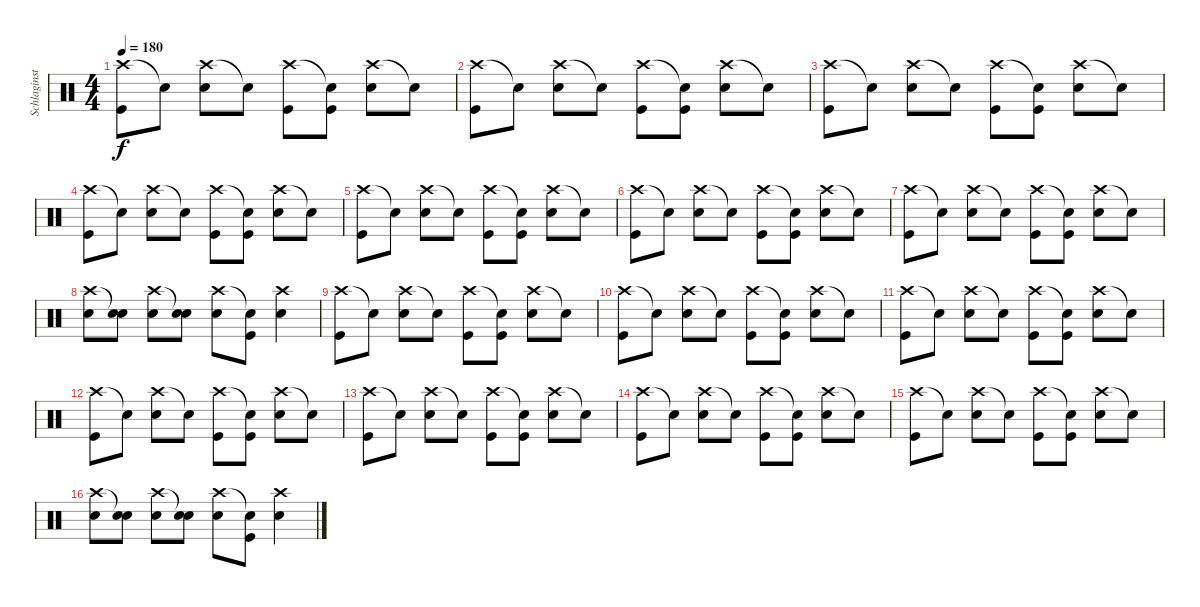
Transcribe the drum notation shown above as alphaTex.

\track ("Schlaginstrumente - Auswahl" "Schlaginst") {instrument percussion}
\staff {score}
\articulation defaults
\ts (4 4)
\tempo 180
\clef neutral
\ks c
("Crash high (hit)" "Kick (hit)").8{dy f} "Snare (hit)"{t}.8 ("Crash high (hit)" "Electric Snare (hit)").8 "Snare (hit)"{t}.8 ("Crash high (hit)" "Kick (hit)").8 ("Snare (hit)"{t} "Kick (hit)").8 ("Crash high (hit)" "Electric Snare (hit)").8 "Snare (hit)"{t}.8 |
("Crash high (hit)" "Kick (hit)").8 "Snare (hit)"{t}.8 ("Crash high (hit)" "Electric Snare (hit)").8 "Snare (hit)"{t}.8 ("Crash high (hit)" "Kick (hit)").8 ("Snare (hit)"{t} "Kick (hit)").8 ("Crash high (hit)" "Electric Snare (hit)").8 "Snare (hit)"{t}.8 |
("Crash high (hit)" "Kick (hit)").8 "Snare (hit)"{t}.8 ("Crash high (hit)" "Electric Snare (hit)").8 "Snare (hit)"{t}.8 ("Crash high (hit)" "Kick (hit)").8 ("Snare (hit)"{t} "Kick (hit)").8 ("Crash high (hit)" "Electric Snare (hit)").8 "Snare (hit)"{t}.8 |
("Crash high (hit)" "Kick (hit)").8 "Snare (hit)"{t}.8 ("Crash high (hit)" "Electric Snare (hit)").8 "Snare (hit)"{t}.8 ("Crash high (hit)" "Kick (hit)").8 ("Snare (hit)"{t} "Kick (hit)").8 ("Crash high (hit)" "Electric Snare (hit)").8 "Snare (hit)"{t}.8 |
("Crash high (hit)" "Kick (hit)").8 "Snare (hit)"{t}.8 ("Crash high (hit)" "Electric Snare (hit)").8 "Snare (hit)"{t}.8 ("Crash high (hit)" "Kick (hit)").8 ("Snare (hit)"{t} "Kick (hit)").8 ("Crash high (hit)" "Electric Snare (hit)").8 "Snare (hit)"{t}.8 |
("Crash high (hit)" "Kick (hit)").8 "Snare (hit)"{t}.8 ("Crash high (hit)" "Electric Snare (hit)").8 "Snare (hit)"{t}.8 ("Crash high (hit)" "Kick (hit)").8 ("Snare (hit)"{t} "Kick (hit)").8 ("Crash high (hit)" "Electric Snare (hit)").8 "Snare (hit)"{t}.8 |
("Crash high (hit)" "Kick (hit)").8 "Snare (hit)"{t}.8 ("Crash high (hit)" "Electric Snare (hit)").8 "Snare (hit)"{t}.8 ("Crash high (hit)" "Kick (hit)").8 ("Snare (hit)"{t} "Kick (hit)").8 ("Crash high (hit)" "Electric Snare (hit)").8 "Snare (hit)"{t}.8 |
("Crash high (hit)" "Electric Snare (hit)").8 ("Snare (hit)"{t} "Electric Snare (hit)").8 ("Crash high (hit)" "Electric Snare (hit)").8 ("Snare (hit)"{t} "Electric Snare (hit)").8 ("Crash high (hit)" "Electric Snare (hit)").8 ("Snare (hit)"{t} "Kick (hit)").8 ("Crash high (hit)" "Electric Snare (hit)").4 |
("Crash high (hit)" "Kick (hit)").8 "Snare (hit)"{t}.8 ("Crash high (hit)" "Electric Snare (hit)").8 "Snare (hit)"{t}.8 ("Crash high (hit)" "Kick (hit)").8 ("Snare (hit)"{t} "Kick (hit)").8 ("Crash high (hit)" "Electric Snare (hit)").8 "Snare (hit)"{t}.8 |
("Crash high (hit)" "Kick (hit)").8 "Snare (hit)"{t}.8 ("Crash high (hit)" "Electric Snare (hit)").8 "Snare (hit)"{t}.8 ("Crash high (hit)" "Kick (hit)").8 ("Snare (hit)"{t} "Kick (hit)").8 ("Crash high (hit)" "Electric Snare (hit)").8 "Snare (hit)"{t}.8 |
("Crash high (hit)" "Kick (hit)").8 "Snare (hit)"{t}.8 ("Crash high (hit)" "Electric Snare (hit)").8 "Snare (hit)"{t}.8 ("Crash high (hit)" "Kick (hit)").8 ("Snare (hit)"{t} "Kick (hit)").8 ("Crash high (hit)" "Electric Snare (hit)").8 "Snare (hit)"{t}.8 |
("Crash high (hit)" "Kick (hit)").8 "Snare (hit)"{t}.8 ("Crash high (hit)" "Electric Snare (hit)").8 "Snare (hit)"{t}.8 ("Crash high (hit)" "Kick (hit)").8 ("Snare (hit)"{t} "Kick (hit)").8 ("Crash high (hit)" "Electric Snare (hit)").8 "Snare (hit)"{t}.8 |
("Crash high (hit)" "Kick (hit)").8 "Snare (hit)"{t}.8 ("Crash high (hit)" "Electric Snare (hit)").8 "Snare (hit)"{t}.8 ("Crash high (hit)" "Kick (hit)").8 ("Snare (hit)"{t} "Kick (hit)").8 ("Crash high (hit)" "Electric Snare (hit)").8 "Snare (hit)"{t}.8 |
("Crash high (hit)" "Kick (hit)").8 "Snare (hit)"{t}.8 ("Crash high (hit)" "Electric Snare (hit)").8 "Snare (hit)"{t}.8 ("Crash high (hit)" "Kick (hit)").8 ("Snare (hit)"{t} "Kick (hit)").8 ("Crash high (hit)" "Electric Snare (hit)").8 "Snare (hit)"{t}.8 |
("Crash high (hit)" "Kick (hit)").8 "Snare (hit)"{t}.8 ("Crash high (hit)" "Electric Snare (hit)").8 "Snare (hit)"{t}.8 ("Crash high (hit)" "Kick (hit)").8 ("Snare (hit)"{t} "Kick (hit)").8 ("Crash high (hit)" "Electric Snare (hit)").8 "Snare (hit)"{t}.8 |
("Crash high (hit)" "Electric Snare (hit)").8 ("Snare (hit)"{t} "Electric Snare (hit)").8 ("Crash high (hit)" "Electric Snare (hit)").8 ("Snare (hit)"{t} "Electric Snare (hit)").8 ("Crash high (hit)" "Electric Snare (hit)").8 ("Snare (hit)"{t} "Kick (hit)").8 ("Crash high (hit)" "Electric Snare (hit)").4
